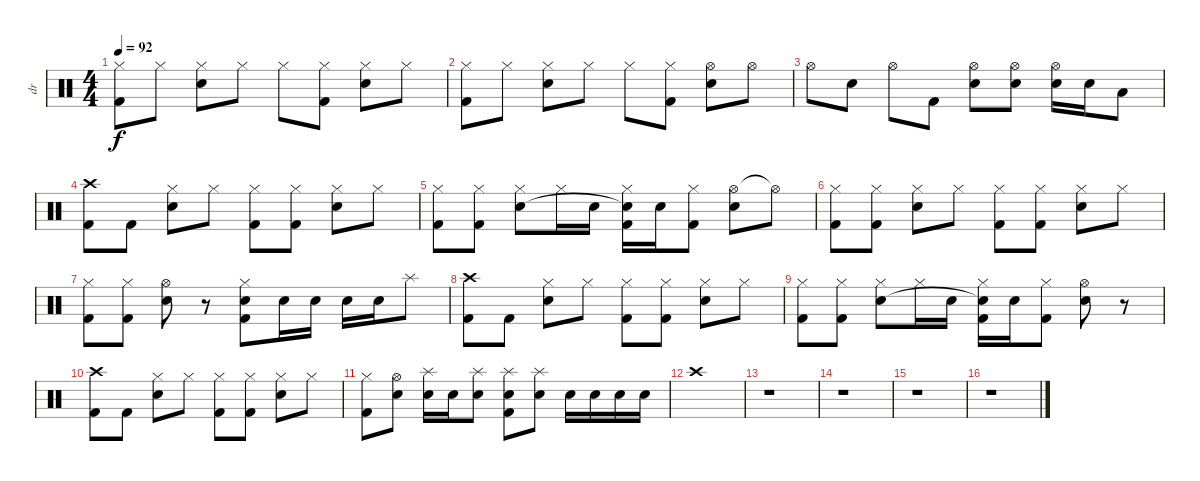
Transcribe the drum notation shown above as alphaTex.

\track ("dr" "dr") {instrument percussion}
\staff {score}
\articulation defaults
\ts (4 4)
\tempo 92
\clef neutral
\ks c
("Hi-Hat (closed)" "Kick (hit) 2").8{dy f} "Hi-Hat (closed)".8 ("Hi-Hat (closed)" "Electric Snare (hit)").8 "Hi-Hat (closed)".8 "Hi-Hat (closed)".8 ("Hi-Hat (closed)" "Kick (hit) 2").8 ("Hi-Hat (closed)" "Electric Snare (hit)").8 "Hi-Hat (closed)".8 |
("Hi-Hat (closed)" "Kick (hit) 2").8 "Hi-Hat (closed)".8 ("Hi-Hat (closed)" "Electric Snare (hit)").8 "Hi-Hat (closed)".8 "Hi-Hat (closed)".8 ("Hi-Hat (closed)" "Kick (hit) 2").8 ("Hi-Hat (open)" "Electric Snare (hit)").8 "Hi-Hat (open)".8 |
"Hi-Hat (open)".8 "Electric Snare (hit)".8 "Hi-Hat (open)".8 "Kick (hit) 2".8 ("Hi-Hat (open)" "Electric Snare (hit)").8 ("Hi-Hat (open)" "Electric Snare (hit)").8 ("Hi-Hat (open)" "Electric Snare (hit)").16 "Electric Snare (hit)".16 "Low Floor Tom (hit)".8 |
("Crash high (hit)" "Kick (hit) 2").8 "Kick (hit) 2".8 ("Hi-Hat (closed)" "Electric Snare (hit)").8 "Hi-Hat (closed)".8 ("Hi-Hat (closed)" "Kick (hit) 2").8 ("Hi-Hat (closed)" "Kick (hit) 2").8 ("Hi-Hat (closed)" "Electric Snare (hit)").8 "Hi-Hat (closed)".8 |
("Hi-Hat (closed)" "Kick (hit) 2").8 ("Hi-Hat (closed)" "Kick (hit) 2").8 ("Hi-Hat (closed)" "Electric Snare (hit)").8 "Hi-Hat (closed)".16 "Electric Snare (hit)".16 ("Hi-Hat (closed)" "Electric Snare (hit)"{t} "Kick (hit) 2").16 "Electric Snare (hit)".16 ("Hi-Hat (closed)" "Kick (hit) 2").8 ("Hi-Hat (open)" "Electric Snare (hit)").8 "Hi-Hat (open)"{t}.8 |
("Hi-Hat (closed)" "Kick (hit) 2").8 ("Hi-Hat (closed)" "Kick (hit) 2").8 ("Hi-Hat (closed)" "Electric Snare (hit)").8 "Hi-Hat (closed)".8 ("Hi-Hat (closed)" "Kick (hit) 2").8 ("Hi-Hat (closed)" "Kick (hit) 2").8 ("Hi-Hat (closed)" "Electric Snare (hit)").8 "Hi-Hat (closed)".8 |
("Hi-Hat (closed)" "Kick (hit) 2").8 ("Hi-Hat (closed)" "Kick (hit) 2").8 ("Hi-Hat (open)" "Electric Snare (hit)").8 r.8 ("Hi-Hat (closed)" "Electric Snare (hit)" "Kick (hit) 2").8 "Electric Snare (hit)".16 "Electric Snare (hit)".16 "Electric Snare (hit)".16 "Electric Snare (hit)".16 "Splash (hit)".8 |
("Crash high (hit)" "Kick (hit) 2").8 "Kick (hit) 2".8 ("Hi-Hat (closed)" "Electric Snare (hit)").8 "Hi-Hat (closed)".8 ("Hi-Hat (closed)" "Kick (hit) 2").8 ("Hi-Hat (closed)" "Kick (hit) 2").8 ("Hi-Hat (closed)" "Electric Snare (hit)").8 "Hi-Hat (closed)".8 |
("Hi-Hat (closed)" "Kick (hit) 2").8 ("Hi-Hat (closed)" "Kick (hit) 2").8 ("Hi-Hat (closed)" "Electric Snare (hit)").8 "Hi-Hat (closed)".16 "Electric Snare (hit)".16 ("Hi-Hat (closed)" "Electric Snare (hit)"{t} "Kick (hit) 2").16 "Electric Snare (hit)".16 ("Hi-Hat (closed)" "Kick (hit) 2").8 ("Hi-Hat (open)" "Electric Snare (hit)").8 r.8 |
("Crash high (hit)" "Kick (hit) 2").8 "Kick (hit) 2".8 ("Hi-Hat (closed)" "Electric Snare (hit)").8 "Hi-Hat (closed)".8 ("Hi-Hat (closed)" "Kick (hit) 2").8 ("Hi-Hat (closed)" "Kick (hit) 2").8 ("Hi-Hat (closed)" "Electric Snare (hit)").8 "Hi-Hat (closed)".8 |
("Hi-Hat (closed)" "Kick (hit) 2").8 ("Hi-Hat (open)" "Electric Snare (hit)").8 ("Splash (hit)" "Electric Snare (hit)").16 "Electric Snare (hit)".16 ("Splash (hit)" "Electric Snare (hit)").8 ("Splash (hit)" "Electric Snare (hit)" "Kick (hit) 2").8 ("Splash (hit)" "Electric Snare (hit)").8 "Electric Snare (hit)".16 "Electric Snare (hit)".16 "Electric Snare (hit)".16 "Electric Snare (hit)".16 |
"Crash high (hit)".1 |
r.1 |
r.1 |
r.1 |
r.1
